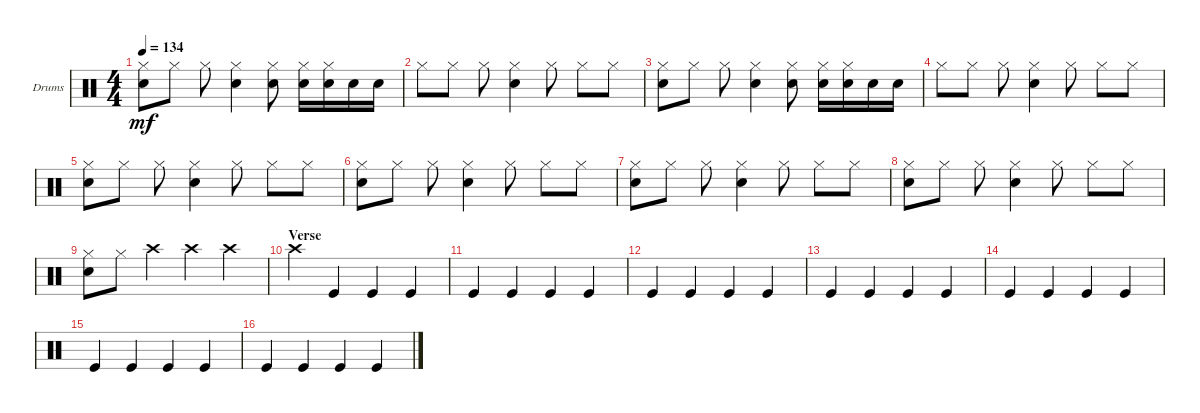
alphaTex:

\defaultSystemsLayout 4
\bracketExtendMode groupsimilarinstruments
\firstSystemTrackNameOrientation horizontal
\otherSystemsTrackNameOrientation horizontal
\track ("Drumkit" "Drums") {instrument percussion}
\staff {score}
\articulation defaults
\ts (4 4)
\tempo 134
\clef neutral
\scale
0.333333
\ks c
("Hi-Hat (closed)" "Snare (hit) 2").8{dy mf} "Hi-Hat (closed)".8 "Hi-Hat (closed)".8 ("Hi-Hat (closed)" "Snare (hit) 2").4 ("Hi-Hat (closed)" "Snare (hit) 2").8 ("Hi-Hat (closed)" "Snare (hit) 2").16 ("Hi-Hat (closed)" "Snare (hit) 2").16 "Snare (hit) 2".16 "Snare (hit) 2".16 |
\scale
0.333333 "Hi-Hat (closed)".8 "Hi-Hat (closed)".8 "Hi-Hat (closed)".8 ("Hi-Hat (closed)" "Snare (hit) 2").4 "Hi-Hat (closed)".8 "Hi-Hat (closed)".8 "Hi-Hat (closed)".8 |
\scale
0.333333 ("Hi-Hat (closed)" "Snare (hit) 2").8 "Hi-Hat (closed)".8 "Hi-Hat (closed)".8 ("Hi-Hat (closed)" "Snare (hit) 2").4 ("Hi-Hat (closed)" "Snare (hit) 2").8 ("Hi-Hat (closed)" "Snare (hit) 2").16 ("Hi-Hat (closed)" "Snare (hit) 2").16 "Snare (hit) 2".16 "Snare (hit) 2".16 |
\scale
0.333333 "Hi-Hat (closed)".8 "Hi-Hat (closed)".8 "Hi-Hat (closed)".8 ("Hi-Hat (closed)" "Snare (hit) 2").4 "Hi-Hat (closed)".8 "Hi-Hat (closed)".8 "Hi-Hat (closed)".8 |
\scale
0.333333 ("Hi-Hat (closed)" "Snare (hit) 2").8 "Hi-Hat (closed)".8 "Hi-Hat (closed)".8 ("Hi-Hat (closed)" "Snare (hit) 2").4 "Hi-Hat (closed)".8 "Hi-Hat (closed)".8 "Hi-Hat (closed)".8 |
\scale
0.333333 ("Hi-Hat (closed)" "Snare (hit) 2").8 "Hi-Hat (closed)".8 "Hi-Hat (closed)".8 ("Hi-Hat (closed)" "Snare (hit) 2").4 "Hi-Hat (closed)".8 "Hi-Hat (closed)".8 "Hi-Hat (closed)".8 |
\scale
0.333333 ("Hi-Hat (closed)" "Snare (hit) 2").8 "Hi-Hat (closed)".8 "Hi-Hat (closed)".8 ("Hi-Hat (closed)" "Snare (hit) 2").4 "Hi-Hat (closed)".8 "Hi-Hat (closed)".8 "Hi-Hat (closed)".8 |
\scale
0.333333 ("Hi-Hat (closed)" "Snare (hit) 2").8 "Hi-Hat (closed)".8 "Hi-Hat (closed)".8 ("Hi-Hat (closed)" "Snare (hit) 2").4 "Hi-Hat (closed)".8 "Hi-Hat (closed)".8 "Hi-Hat (closed)".8 |
\scale
0.333333 ("Hi-Hat (closed)" "Snare (hit) 2").8 "Hi-Hat (closed)".8 "Crash high (hit)".4 "Crash high (hit)".4 "Crash high (hit)".4 |
\section ("" "Verse")
\scale
0.333333 "Crash high (hit)".4 "Kick (hit)".4 "Kick (hit)".4 "Kick (hit)".4 |
"Kick (hit)".4 "Kick (hit)".4 "Kick (hit)".4 "Kick (hit)".4 |
"Kick (hit)".4 "Kick (hit)".4 "Kick (hit)".4 "Kick (hit)".4 |
"Kick (hit)".4 "Kick (hit)".4 "Kick (hit)".4 "Kick (hit)".4 |
"Kick (hit)".4 "Kick (hit)".4 "Kick (hit)".4 "Kick (hit)".4 |
"Kick (hit)".4 "Kick (hit)".4 "Kick (hit)".4 "Kick (hit)".4 |
"Kick (hit)".4 "Kick (hit)".4 "Kick (hit)".4 "Kick (hit)".4
